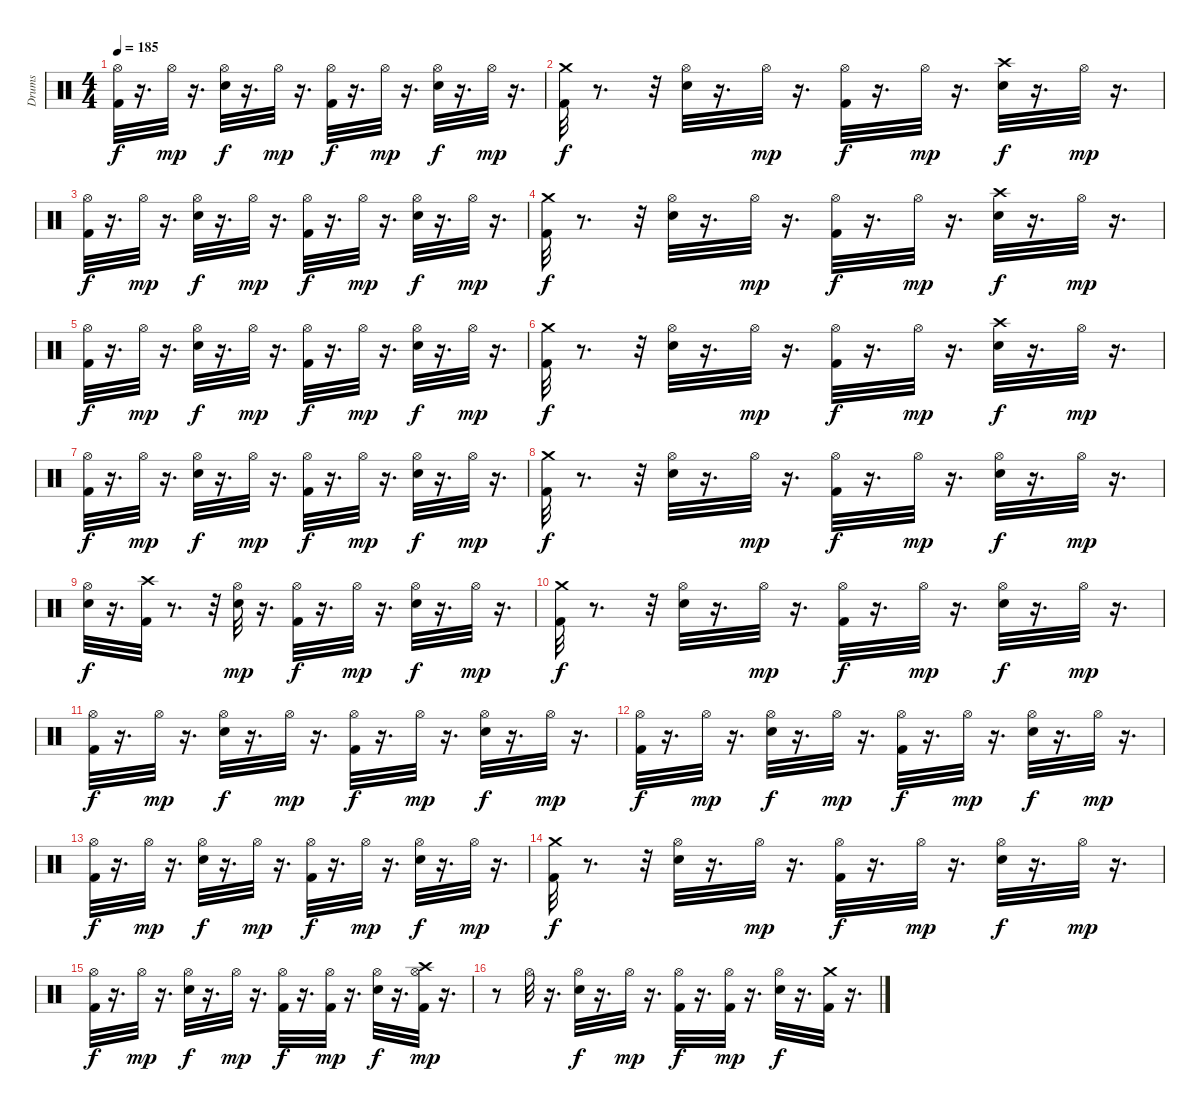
\track ("Drums" "Drums") {instrument percussion}
\staff {score}
\articulation defaults
\ts (4 4)
\tempo 185
\clef neutral
\ks c
("Hi-Hat (open)" "Kick (hit) 2").32{dy f} r.16{d} "Hi-Hat (open)".32{dy mp} r.16{d} ("Hi-Hat (open)" "Electric Snare (hit)").32{dy f} r.16{d} "Hi-Hat (open)".32{dy mp} r.16{d} ("Hi-Hat (open)" "Kick (hit) 2").32{dy f} r.16{d} "Hi-Hat (open)".32{dy mp} r.16{d} ("Hi-Hat (open)" "Electric Snare (hit)").32{dy f} r.16{d} "Hi-Hat (open)".32{dy mp} r.16{d} |
("Crash medium (hit)" "Kick (hit) 2").32{dy f} r.8{d} r.32 ("Hi-Hat (open)" "Electric Snare (hit)").32 r.16{d} "Hi-Hat (open)".32{dy mp} r.16{d} ("Hi-Hat (open)" "Kick (hit) 2").32{dy f} r.16{d} "Hi-Hat (open)".32{dy mp} r.16{d} ("Crash high (hit)" "Electric Snare (hit)").32{dy f} r.16{d} "Hi-Hat (open)".32{dy mp} r.16{d} |
("Hi-Hat (open)" "Kick (hit) 2").32{dy f} r.16{d} "Hi-Hat (open)".32{dy mp} r.16{d} ("Hi-Hat (open)" "Electric Snare (hit)").32{dy f} r.16{d} "Hi-Hat (open)".32{dy mp} r.16{d} ("Hi-Hat (open)" "Kick (hit) 2").32{dy f} r.16{d} "Hi-Hat (open)".32{dy mp} r.16{d} ("Hi-Hat (open)" "Electric Snare (hit)").32{dy f} r.16{d} "Hi-Hat (open)".32{dy mp} r.16{d} |
("Crash medium (hit)" "Kick (hit) 2").32{dy f} r.8{d} r.32 ("Hi-Hat (open)" "Electric Snare (hit)").32 r.16{d} "Hi-Hat (open)".32{dy mp} r.16{d} ("Hi-Hat (open)" "Kick (hit) 2").32{dy f} r.16{d} "Hi-Hat (open)".32{dy mp} r.16{d} ("Crash high (hit)" "Electric Snare (hit)").32{dy f} r.16{d} "Hi-Hat (open)".32{dy mp} r.16{d} |
("Hi-Hat (open)" "Kick (hit) 2").32{dy f} r.16{d} "Hi-Hat (open)".32{dy mp} r.16{d} ("Hi-Hat (open)" "Electric Snare (hit)").32{dy f} r.16{d} "Hi-Hat (open)".32{dy mp} r.16{d} ("Hi-Hat (open)" "Kick (hit) 2").32{dy f} r.16{d} "Hi-Hat (open)".32{dy mp} r.16{d} ("Hi-Hat (open)" "Electric Snare (hit)").32{dy f} r.16{d} "Hi-Hat (open)".32{dy mp} r.16{d} |
("Crash medium (hit)" "Kick (hit) 2").32{dy f} r.8{d} r.32 ("Hi-Hat (open)" "Electric Snare (hit)").32 r.16{d} "Hi-Hat (open)".32{dy mp} r.16{d} ("Hi-Hat (open)" "Kick (hit) 2").32{dy f} r.16{d} "Hi-Hat (open)".32{dy mp} r.16{d} ("Crash high (hit)" "Electric Snare (hit)").32{dy f} r.16{d} "Hi-Hat (open)".32{dy mp} r.16{d} |
("Hi-Hat (open)" "Kick (hit) 2").32{dy f} r.16{d} "Hi-Hat (open)".32{dy mp} r.16{d} ("Hi-Hat (open)" "Electric Snare (hit)").32{dy f} r.16{d} "Hi-Hat (open)".32{dy mp} r.16{d} ("Hi-Hat (open)" "Kick (hit) 2").32{dy f} r.16{d} "Hi-Hat (open)".32{dy mp} r.16{d} ("Hi-Hat (open)" "Electric Snare (hit)").32{dy f} r.16{d} "Hi-Hat (open)".32{dy mp} r.16{d} |
("Crash medium (hit)" "Kick (hit) 2").32{dy f} r.8{d} r.32 ("Hi-Hat (open)" "Electric Snare (hit)").32 r.16{d} "Hi-Hat (open)".32{dy mp} r.16{d} ("Hi-Hat (open)" "Kick (hit) 2").32{dy f} r.16{d} "Hi-Hat (open)".32{dy mp} r.16{d} ("Hi-Hat (open)" "Electric Snare (hit)").32{dy f} r.16{d} "Hi-Hat (open)".32{dy mp} r.16{d} |
("Electric Snare (hit)" "Hi-Hat (open)").32{dy f} r.16{d} ("Crash high (hit)" "Kick (hit) 2").32 r.8{d} r.32 ("Electric Snare (hit)" "Hi-Hat (open)").32{dy mp} r.16{d} ("Kick (hit) 2" "Hi-Hat (open)").32{dy f} r.16{d} "Hi-Hat (open)".32{dy mp} r.16{d} ("Hi-Hat (open)" "Electric Snare (hit)").32{dy f} r.16{d} "Hi-Hat (open)".32{dy mp} r.16{d} |
("Crash medium (hit)" "Kick (hit) 2").32{dy f} r.8{d} r.32 ("Hi-Hat (open)" "Electric Snare (hit)").32 r.16{d} "Hi-Hat (open)".32{dy mp} r.16{d} ("Hi-Hat (open)" "Kick (hit) 2").32{dy f} r.16{d} "Hi-Hat (open)".32{dy mp} r.16{d} ("Hi-Hat (open)" "Electric Snare (hit)").32{dy f} r.16{d} "Hi-Hat (open)".32{dy mp} r.16{d} |
("Hi-Hat (open)" "Kick (hit) 2").32{dy f} r.16{d} "Hi-Hat (open)".32{dy mp} r.16{d} ("Hi-Hat (open)" "Electric Snare (hit)").32{dy f} r.16{d} "Hi-Hat (open)".32{dy mp} r.16{d} ("Hi-Hat (open)" "Kick (hit) 2").32{dy f} r.16{d} "Hi-Hat (open)".32{dy mp} r.16{d} ("Hi-Hat (open)" "Electric Snare (hit)").32{dy f} r.16{d} "Hi-Hat (open)".32{dy mp} r.16{d} |
("Hi-Hat (open)" "Kick (hit) 2").32{dy f} r.16{d} "Hi-Hat (open)".32{dy mp} r.16{d} ("Hi-Hat (open)" "Electric Snare (hit)").32{dy f} r.16{d} "Hi-Hat (open)".32{dy mp} r.16{d} ("Hi-Hat (open)" "Kick (hit) 2").32{dy f} r.16{d} "Hi-Hat (open)".32{dy mp} r.16{d} ("Hi-Hat (open)" "Electric Snare (hit)").32{dy f} r.16{d} "Hi-Hat (open)".32{dy mp} r.16{d} |
("Hi-Hat (open)" "Kick (hit) 2").32{dy f} r.16{d} "Hi-Hat (open)".32{dy mp} r.16{d} ("Hi-Hat (open)" "Electric Snare (hit)").32{dy f} r.16{d} "Hi-Hat (open)".32{dy mp} r.16{d} ("Hi-Hat (open)" "Kick (hit) 2").32{dy f} r.16{d} "Hi-Hat (open)".32{dy mp} r.16{d} ("Hi-Hat (open)" "Electric Snare (hit)").32{dy f} r.16{d} "Hi-Hat (open)".32{dy mp} r.16{d} |
("Crash medium (hit)" "Kick (hit) 2").32{dy f} r.8{d} r.32 ("Hi-Hat (open)" "Electric Snare (hit)").32 r.16{d} "Hi-Hat (open)".32{dy mp} r.16{d} ("Hi-Hat (open)" "Kick (hit) 2").32{dy f} r.16{d} "Hi-Hat (open)".32{dy mp} r.16{d} ("Hi-Hat (open)" "Electric Snare (hit)").32{dy f} r.16{d} "Hi-Hat (open)".32{dy mp} r.16{d} |
("Hi-Hat (open)" "Kick (hit) 2").32{dy f} r.16{d} "Hi-Hat (open)".32{dy mp} r.16{d} ("Hi-Hat (open)" "Electric Snare (hit)").32{dy f} r.16{d} "Hi-Hat (open)".32{dy mp} r.16{d} ("Hi-Hat (open)" "Kick (hit) 2").32{dy f} r.16{d} ("Kick (hit) 2" "Hi-Hat (open)").32{dy mp} r.16{d} ("Hi-Hat (open)" "Electric Snare (hit)").32{dy f} r.16{d} ("Hi-Hat (open)" "Crash high (hit)" "Kick (hit) 2").32{dy mp} r.16{d} |
r.8 "Hi-Hat (open)".32 r.16{d} ("Hi-Hat (open)" "Electric Snare (hit)").32{dy f} r.16{d} "Hi-Hat (open)".32{dy mp} r.16{d} ("Hi-Hat (open)" "Kick (hit) 2").32{dy f} r.16{d} ("Hi-Hat (open)" "Kick (hit) 2").32{dy mp} r.16{d} ("Hi-Hat (open)" "Electric Snare (hit)").32{dy f} r.16{d} ("Crash medium (hit)" "Kick (hit) 2").32 r.16{d}
